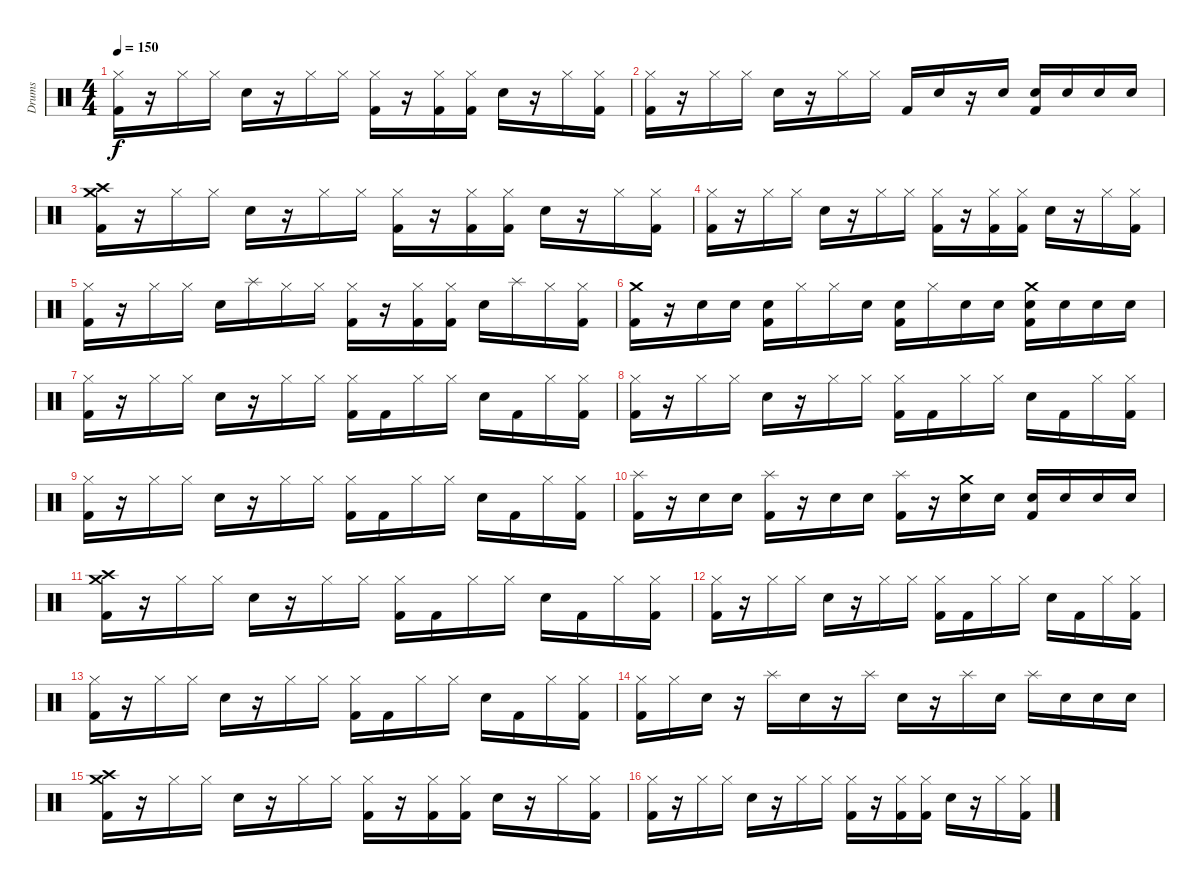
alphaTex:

\track ("Drums" "Drums") {instrument percussion}
\staff {score}
\articulation defaults
\ts (4 4)
\tempo 150
\clef neutral
\ks c
("Hi-Hat (closed)" "Kick (hit) 2").16{dy f} r.16 "Hi-Hat (closed)".16 "Hi-Hat (closed)".16 "Snare (hit) 2".16 r.16 "Hi-Hat (closed)".16 "Hi-Hat (closed)".16 ("Hi-Hat (closed)" "Kick (hit) 2").16 r.16 ("Hi-Hat (closed)" "Kick (hit) 2").16 ("Hi-Hat (closed)" "Kick (hit) 2").16 "Snare (hit) 2".16 r.16 "Hi-Hat (closed)".16 ("Hi-Hat (closed)" "Kick (hit) 2").16 |
("Hi-Hat (closed)" "Kick (hit) 2").16 r.16 "Hi-Hat (closed)".16 "Hi-Hat (closed)".16 "Snare (hit) 2".16 r.16 "Hi-Hat (closed)".16 "Hi-Hat (closed)".16 "Kick (hit) 2".16 "Snare (hit) 2".16 r.16 "Snare (hit) 2".16 ("Snare (hit) 2" "Kick (hit) 2").16 "Snare (hit) 2".16 "Snare (hit) 2".16 "Snare (hit) 2".16 |
("Crash medium (hit)" "Crash high (hit)" "Kick (hit) 2").16 r.16 "Hi-Hat (closed)".16 "Hi-Hat (closed)".16 "Snare (hit) 2".16 r.16 "Hi-Hat (closed)".16 "Hi-Hat (closed)".16 ("Hi-Hat (closed)" "Kick (hit) 2").16 r.16 ("Hi-Hat (closed)" "Kick (hit) 2").16 ("Hi-Hat (closed)" "Kick (hit) 2").16 "Snare (hit) 2".16 r.16 "Hi-Hat (closed)".16 ("Hi-Hat (closed)" "Kick (hit) 2").16 |
("Hi-Hat (closed)" "Kick (hit) 2").16 r.16 "Hi-Hat (closed)".16 "Hi-Hat (closed)".16 "Snare (hit) 2".16 r.16 "Hi-Hat (closed)".16 "Hi-Hat (closed)".16 ("Hi-Hat (closed)" "Kick (hit) 2").16 r.16 ("Hi-Hat (closed)" "Kick (hit) 2").16 ("Hi-Hat (closed)" "Kick (hit) 2").16 "Snare (hit) 2".16 r.16 "Hi-Hat (closed)".16 ("Hi-Hat (closed)" "Kick (hit) 2").16 |
("Hi-Hat (closed)" "Kick (hit) 2").16 r.16 "Hi-Hat (closed)".16 "Hi-Hat (closed)".16 "Snare (hit) 2".16 "Splash (hit)".16 "Hi-Hat (closed)".16 "Hi-Hat (closed)".16 ("Hi-Hat (closed)" "Kick (hit) 2").16 r.16 ("Hi-Hat (closed)" "Kick (hit) 2").16 ("Hi-Hat (closed)" "Kick (hit) 2").16 "Snare (hit) 2".16 "Splash (hit)".16 "Hi-Hat (closed)".16 ("Hi-Hat (closed)" "Kick (hit) 2").16 |
("Crash medium (hit)" "Kick (hit) 2").16 r.16 "Snare (hit) 2".16 "Snare (hit) 2".16 ("Snare (hit) 2" "Kick (hit) 2").16 "Hi-Hat (closed)".16 "Hi-Hat (closed)".16 "Snare (hit) 2".16 ("Snare (hit) 2" "Kick (hit) 2").16 "Hi-Hat (closed)".16 "Snare (hit) 2".16 "Snare (hit) 2".16 ("Crash medium (hit)" "Snare (hit) 2" "Kick (hit) 2").16 "Snare (hit) 2".16 "Snare (hit) 2".16 "Snare (hit) 2".16 |
("Hi-Hat (closed)" "Kick (hit) 2").16 r.16 "Hi-Hat (closed)".16 "Hi-Hat (closed)".16 "Snare (hit) 2".16 r.16 "Hi-Hat (closed)".16 "Hi-Hat (closed)".16 ("Hi-Hat (closed)" "Kick (hit) 2").16 "Kick (hit) 2".16 "Hi-Hat (closed)".16 "Hi-Hat (closed)".16 "Snare (hit) 2".16 "Kick (hit) 2".16 "Hi-Hat (closed)".16 ("Hi-Hat (closed)" "Kick (hit) 2").16 |
("Hi-Hat (closed)" "Kick (hit) 2").16 r.16 "Hi-Hat (closed)".16 "Hi-Hat (closed)".16 "Snare (hit) 2".16 r.16 "Hi-Hat (closed)".16 "Hi-Hat (closed)".16 ("Hi-Hat (closed)" "Kick (hit) 2").16 "Kick (hit) 2".16 "Hi-Hat (closed)".16 "Hi-Hat (closed)".16 "Snare (hit) 2".16 "Kick (hit) 2".16 "Hi-Hat (closed)".16 ("Hi-Hat (closed)" "Kick (hit) 2").16 |
("Hi-Hat (closed)" "Kick (hit) 2").16 r.16 "Hi-Hat (closed)".16 "Hi-Hat (closed)".16 "Snare (hit) 2".16 r.16 "Hi-Hat (closed)".16 "Hi-Hat (closed)".16 ("Hi-Hat (closed)" "Kick (hit) 2").16 "Kick (hit) 2".16 "Hi-Hat (closed)".16 "Hi-Hat (closed)".16 "Snare (hit) 2".16 "Kick (hit) 2".16 "Hi-Hat (closed)".16 ("Hi-Hat (closed)" "Kick (hit) 2").16 |
("Splash (hit)" "Kick (hit) 2").16 r.16 "Snare (hit) 2".16 "Snare (hit) 2".16 ("Splash (hit)" "Kick (hit) 2").16 r.16 "Snare (hit) 2".16 "Snare (hit) 2".16 ("Splash (hit)" "Kick (hit) 2").16 r.16 ("Crash medium (hit)" "Snare (hit) 2").16 "Snare (hit) 2".16 ("Snare (hit) 2" "Kick (hit) 2").16 "Snare (hit) 2".16 "Snare (hit) 2".16 "Snare (hit) 2".16 |
("Crash medium (hit)" "Crash high (hit)" "Kick (hit) 2").16 r.16 "Hi-Hat (closed)".16 "Hi-Hat (closed)".16 "Snare (hit) 2".16 r.16 "Hi-Hat (closed)".16 "Hi-Hat (closed)".16 ("Hi-Hat (closed)" "Kick (hit) 2").16 "Kick (hit) 2".16 "Hi-Hat (closed)".16 "Hi-Hat (closed)".16 "Snare (hit) 2".16 "Kick (hit) 2".16 "Hi-Hat (closed)".16 ("Hi-Hat (closed)" "Kick (hit) 2").16 |
("Hi-Hat (closed)" "Kick (hit) 2").16 r.16 "Hi-Hat (closed)".16 "Hi-Hat (closed)".16 "Snare (hit) 2".16 r.16 "Hi-Hat (closed)".16 "Hi-Hat (closed)".16 ("Hi-Hat (closed)" "Kick (hit) 2").16 "Kick (hit) 2".16 "Hi-Hat (closed)".16 "Hi-Hat (closed)".16 "Snare (hit) 2".16 "Kick (hit) 2".16 "Hi-Hat (closed)".16 ("Hi-Hat (closed)" "Kick (hit) 2").16 |
("Hi-Hat (closed)" "Kick (hit) 2").16 r.16 "Hi-Hat (closed)".16 "Hi-Hat (closed)".16 "Snare (hit) 2".16 r.16 "Hi-Hat (closed)".16 "Hi-Hat (closed)".16 ("Hi-Hat (closed)" "Kick (hit) 2").16 "Kick (hit) 2".16 "Hi-Hat (closed)".16 "Hi-Hat (closed)".16 "Snare (hit) 2".16 "Kick (hit) 2".16 "Hi-Hat (closed)".16 ("Hi-Hat (closed)" "Kick (hit) 2").16 |
("Hi-Hat (closed)" "Kick (hit) 2").16 "Hi-Hat (closed)".16 "Snare (hit) 2".16 r.16 "Splash (hit)".16 "Snare (hit) 2".16 r.16 "Splash (hit)".16 "Snare (hit) 2".16 r.16 "Splash (hit)".16 "Snare (hit) 2".16 "Splash (hit)".16 "Snare (hit) 2".16 "Snare (hit) 2".16 "Snare (hit) 2".16 |
("Crash medium (hit)" "Crash high (hit)" "Kick (hit) 2").16 r.16 "Hi-Hat (closed)".16 "Hi-Hat (closed)".16 "Snare (hit) 2".16 r.16 "Hi-Hat (closed)".16 "Hi-Hat (closed)".16 ("Hi-Hat (closed)" "Kick (hit) 2").16 r.16 ("Hi-Hat (closed)" "Kick (hit) 2").16 ("Hi-Hat (closed)" "Kick (hit) 2").16 "Snare (hit) 2".16 r.16 "Hi-Hat (closed)".16 ("Hi-Hat (closed)" "Kick (hit) 2").16 |
("Hi-Hat (closed)" "Kick (hit) 2").16 r.16 "Hi-Hat (closed)".16 "Hi-Hat (closed)".16 "Snare (hit) 2".16 r.16 "Hi-Hat (closed)".16 "Hi-Hat (closed)".16 ("Hi-Hat (closed)" "Kick (hit) 2").16 r.16 ("Hi-Hat (closed)" "Kick (hit) 2").16 ("Hi-Hat (closed)" "Kick (hit) 2").16 "Snare (hit) 2".16 r.16 "Hi-Hat (closed)".16 ("Hi-Hat (closed)" "Kick (hit) 2").16
